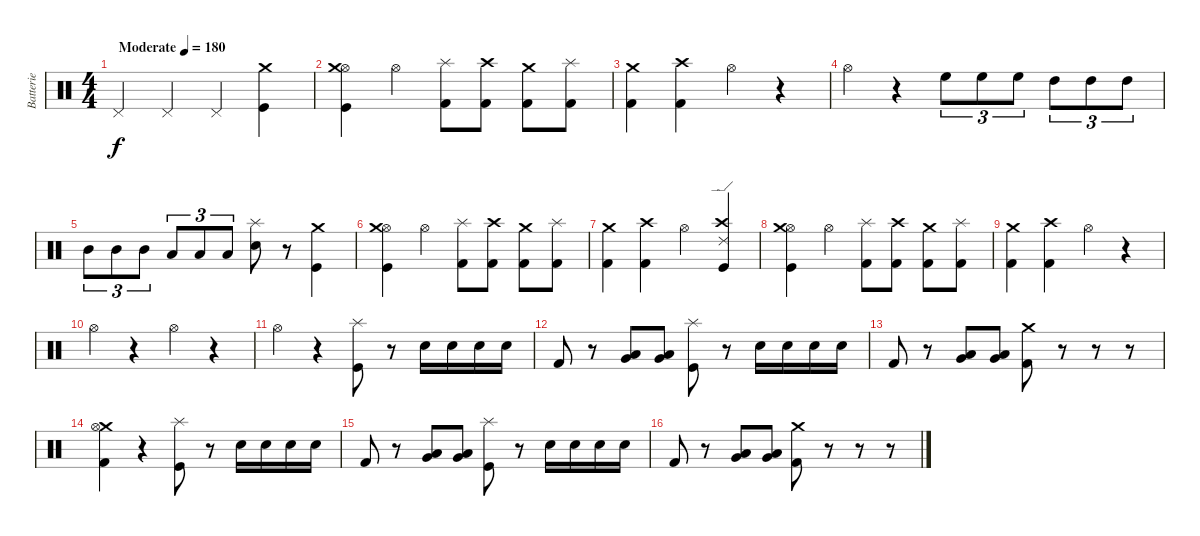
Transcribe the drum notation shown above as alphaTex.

\track ("Batterie" "Batterie") {instrument percussion}
\staff {score}
\articulation defaults
\ts (4 4)
\tempo (180 "Moderate")
\clef neutral
\ks c "Pedal Hi-Hat (hit)".4{dy f} "Pedal Hi-Hat (hit)".4 "Pedal Hi-Hat (hit)".4
("Crash medium (hit)" "Kick (hit)").4 |
("Hi-Hat (open)" "Crash medium (hit)" "Kick (hit)").4 "Hi-Hat (open)".4 ("Splash (hit)" "Kick (hit) 2").8 ("Crash high (hit)" "Kick (hit) 2").8 ("Crash medium (hit)" "Kick (hit) 2").8 ("Splash (hit)" "Kick (hit) 2").8 |
("Crash medium (hit)" "Kick (hit) 2").4 ("Crash high (hit)" "Kick (hit) 2").4 "Hi-Hat (open)".4 r.4 |
"Hi-Hat (open)".4 r.4 "High Floor Tom (hit)".8{tu (3 2)} "High Floor Tom (hit)".8{tu (3 2)} "High Floor Tom (hit)".8{tu (3 2)} "High Tom (hit)".8{tu (3 2)} "High Tom (hit)".8{tu (3 2)} "High Tom (hit)".8{tu (3 2)} |
"Mid Tom (hit)".8{tu (3 2)} "Mid Tom (hit)".8{tu (3 2)} "Mid Tom (hit)".8{tu (3 2)} "Low Tom (hit)".8{tu (3 2)} "Low Tom (hit)".8{tu (3 2)} "Low Tom (hit)".8{tu (3 2)} ("Splash (hit)" "Electric Snare (hit)").8 r.8 ("Crash medium (hit)" "Kick (hit)").4 |
("Hi-Hat (open)" "Crash medium (hit)" "Kick (hit)").4 "Hi-Hat (open)".4 ("Splash (hit)" "Kick (hit) 2").8 ("Crash high (hit)" "Kick (hit) 2").8 ("Crash medium (hit)" "Kick (hit) 2").8 ("Splash (hit)" "Kick (hit) 2").8 |
("Crash medium (hit)" "Kick (hit) 2").4 ("Crash high (hit)" "Kick (hit) 2").4 "Hi-Hat (open)".4 ("Crash high (hit)" "Ride (edge) 2" "Kick (hit)").4 |
("Hi-Hat (open)" "Crash medium (hit)" "Kick (hit)").4 "Hi-Hat (open)".4 ("Splash (hit)" "Kick (hit) 2").8 ("Crash high (hit)" "Kick (hit) 2").8 ("Crash medium (hit)" "Kick (hit) 2").8 ("Splash (hit)" "Kick (hit) 2").8 |
("Crash medium (hit)" "Kick (hit) 2").4 ("Crash high (hit)" "Kick (hit) 2").4 "Hi-Hat (open)".4 r.4 |
"Hi-Hat (open)".4 r.4 "Hi-Hat (open)".4 r.4 |
"Hi-Hat (open)".4 r.4 ("Splash (hit)" "Kick (hit)").8 r.8 "Electric Snare (hit)".16 "Electric Snare (hit)".16 "Electric Snare (hit)".16 "Electric Snare (hit)".16 |
"Kick (hit) 2".8 r.8 ("Very Low Tom (hit)" "Low Tom (hit)").8 ("Very Low Tom (hit)" "Low Tom (hit)").8 ("Splash (hit)" "Kick (hit)").8 r.8 "Electric Snare (hit)".16 "Electric Snare (hit)".16 "Electric Snare (hit)".16 "Electric Snare (hit)".16 |
"Kick (hit) 2".8 r.8 ("Very Low Tom (hit)" "Low Tom (hit)").8 ("Very Low Tom (hit)" "Low Tom (hit)").8 ("Crash medium (hit)" "Kick (hit) 2").8 r.8 r.8 r.8 |
("Crash medium (hit)" "Hi-Hat (open)" "Kick (hit) 2").4 r.4 ("Splash (hit)" "Kick (hit)").8 r.8 "Electric Snare (hit)".16 "Electric Snare (hit)".16 "Electric Snare (hit)".16 "Electric Snare (hit)".16 |
"Kick (hit) 2".8 r.8 ("Very Low Tom (hit)" "Low Tom (hit)").8 ("Very Low Tom (hit)" "Low Tom (hit)").8 ("Splash (hit)" "Kick (hit)").8 r.8 "Electric Snare (hit)".16 "Electric Snare (hit)".16 "Electric Snare (hit)".16 "Electric Snare (hit)".16 |
"Kick (hit) 2".8 r.8 ("Very Low Tom (hit)" "Low Tom (hit)").8 ("Very Low Tom (hit)" "Low Tom (hit)").8 ("Crash medium (hit)" "Kick (hit) 2").8 r.8 r.8 r.8
